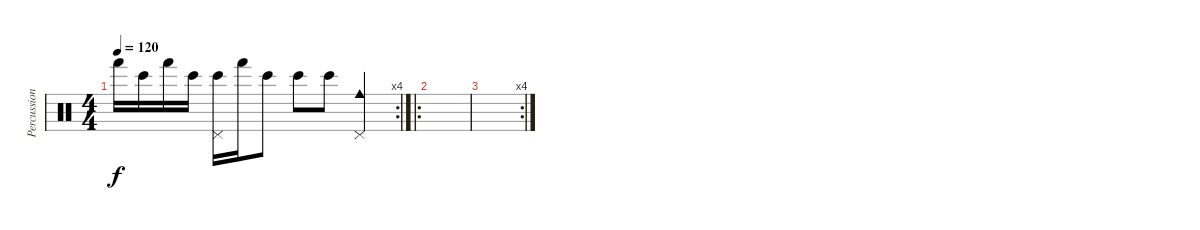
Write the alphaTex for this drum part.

\track ("Percussion" "Percussion") {instrument percussion}
\staff {score}
\articulation defaults
\rc 4
\ts (4 4)
\tempo 120
\clef neutral
\ks c "Hand (hit)".16{dy f} "Bongo High (hit)".16 "Hand (hit)".16 "Bongo High (hit)".16
("Pedal Hi-Hat (hit)" "Bongo High (hit)").16 "Hand (hit)".16 "Bongo High (hit)".8 "Bongo High (hit)".8 "Bongo High (hit)".8 ("Pedal Hi-Hat (hit)" "Cowbell medium (hit)").4 |
\ro
|
\rc 4
